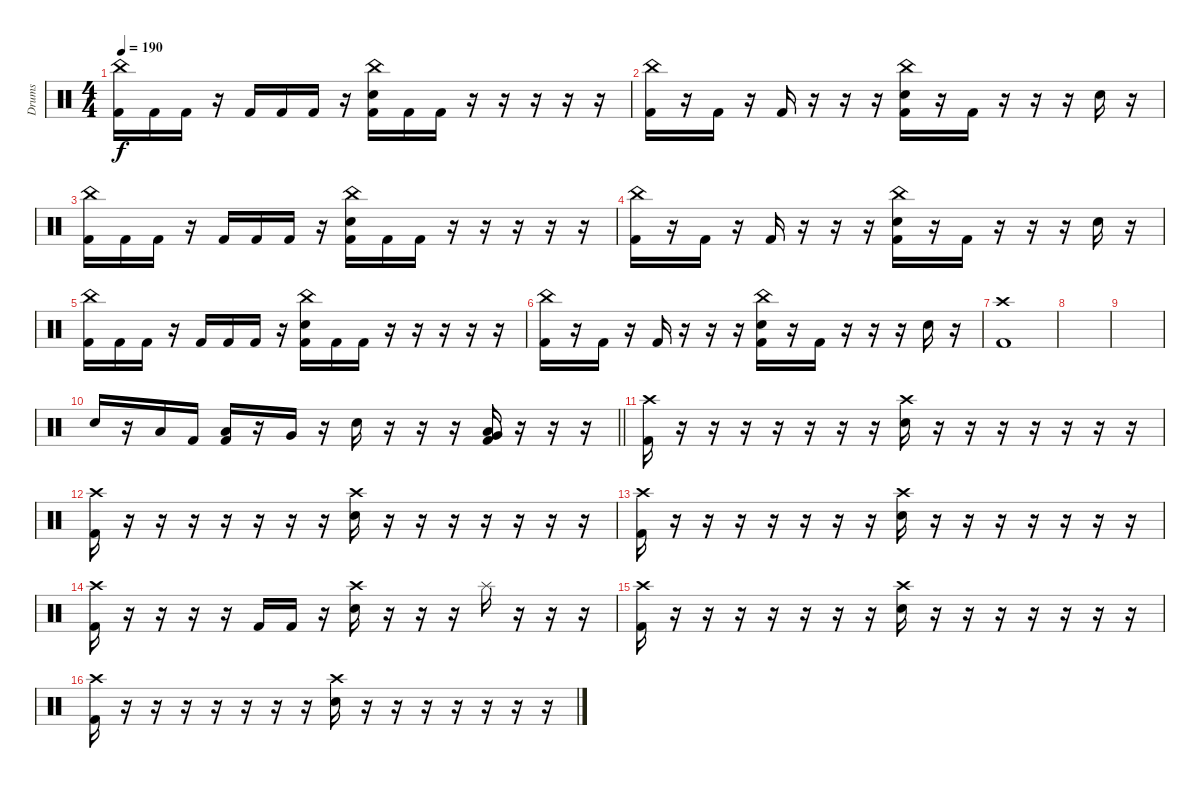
\track ("Drums" "Drums") {instrument percussion}
\staff {score}
\articulation defaults
\ts (4 4)
\tempo 190
\clef neutral
\ks c
("China (hit)" "Kick (hit) 2").16{dy f} "Kick (hit) 2".16 "Kick (hit) 2".16 r.16 "Kick (hit) 2".16 "Kick (hit) 2".16 "Kick (hit) 2".16 r.16 ("China (hit)" "Electric Snare (hit)" "Kick (hit) 2").16 "Kick (hit) 2".16 "Kick (hit) 2".16 r.16 r.16 r.16 r.16 r.16 |
("China (hit)" "Kick (hit) 2").16 r.16 "Kick (hit) 2".16 r.16 "Kick (hit) 2".16 r.16 r.16 r.16 ("China (hit)" "Electric Snare (hit)" "Kick (hit) 2").16 r.16 "Kick (hit) 2".16 r.16 r.16 r.16 "Electric Snare (hit)".16 r.16 |
("China (hit)" "Kick (hit) 2").16 "Kick (hit) 2".16 "Kick (hit) 2".16 r.16 "Kick (hit) 2".16 "Kick (hit) 2".16 "Kick (hit) 2".16 r.16 ("China (hit)" "Electric Snare (hit)" "Kick (hit) 2").16 "Kick (hit) 2".16 "Kick (hit) 2".16 r.16 r.16 r.16 r.16 r.16 |
("China (hit)" "Kick (hit) 2").16 r.16 "Kick (hit) 2".16 r.16 "Kick (hit) 2".16 r.16 r.16 r.16 ("China (hit)" "Electric Snare (hit)" "Kick (hit) 2").16 r.16 "Kick (hit) 2".16 r.16 r.16 r.16 "Electric Snare (hit)".16 r.16 |
("China (hit)" "Kick (hit) 2").16 "Kick (hit) 2".16 "Kick (hit) 2".16 r.16 "Kick (hit) 2".16 "Kick (hit) 2".16 "Kick (hit) 2".16 r.16 ("China (hit)" "Electric Snare (hit)" "Kick (hit) 2").16 "Kick (hit) 2".16 "Kick (hit) 2".16 r.16 r.16 r.16 r.16 r.16 |
("China (hit)" "Kick (hit) 2").16 r.16 "Kick (hit) 2".16 r.16 "Kick (hit) 2".16 r.16 r.16 r.16 ("China (hit)" "Electric Snare (hit)" "Kick (hit) 2").16 r.16 "Kick (hit) 2".16 r.16 r.16 r.16 "Electric Snare (hit)".16 r.16 |
("Crash high (hit)" "Kick (hit) 2").1 |
|
|
\barLineRight lightlight "Electric Snare (hit)".16
r.16 "Low Tom (hit)".16 "Kick (hit) 2".16 ("Low Tom (hit)" "Kick (hit) 2").16 r.16 "Very Low Tom (hit)".16 r.16 "Electric Snare (hit)".16 r.16 r.16 r.16 ("Low Floor Tom (hit)" "Very Low Tom (hit)" "Kick (hit) 2").16 r.16 r.16 r.16 |
("Crash high (hit)" "Kick (hit) 2").16 r.16 r.16 r.16 r.16 r.16 r.16 r.16 ("Crash high (hit)" "Electric Snare (hit)").16 r.16 r.16 r.16 r.16 r.16 r.16 r.16 |
("Crash high (hit)" "Kick (hit) 2").16 r.16 r.16 r.16 r.16 r.16 r.16 r.16 ("Crash high (hit)" "Electric Snare (hit)").16 r.16 r.16 r.16 r.16 r.16 r.16 r.16 |
("Crash high (hit)" "Kick (hit) 2").16 r.16 r.16 r.16 r.16 r.16 r.16 r.16 ("Crash high (hit)" "Electric Snare (hit)").16 r.16 r.16 r.16 r.16 r.16 r.16 r.16 |
("Crash high (hit)" "Kick (hit) 2").16 r.16 r.16 r.16 r.16 "Kick (hit) 2".16 "Kick (hit) 2".16 r.16 ("Crash high (hit)" "Electric Snare (hit)").16 r.16 r.16 r.16 "Splash (hit)".16 r.16 r.16 r.16 |
("Crash high (hit)" "Kick (hit) 2").16 r.16 r.16 r.16 r.16 r.16 r.16 r.16 ("Crash high (hit)" "Electric Snare (hit)").16 r.16 r.16 r.16 r.16 r.16 r.16 r.16 |
("Crash high (hit)" "Kick (hit) 2").16 r.16 r.16 r.16 r.16 r.16 r.16 r.16 ("Crash high (hit)" "Electric Snare (hit)").16 r.16 r.16 r.16 r.16 r.16 r.16 r.16
